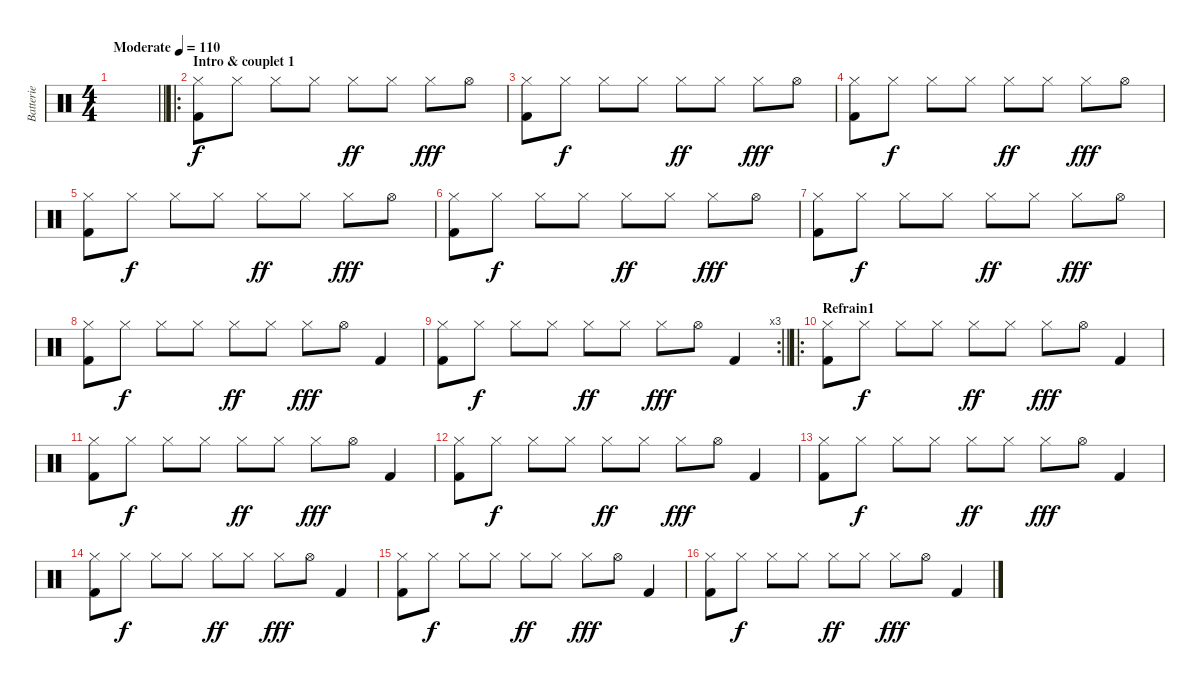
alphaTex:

\track ("Batterie" "Batterie") {instrument percussion}
\staff {score}
\articulation defaults
\ts (4 4)
\tempo (110 "Moderate")
\clef neutral
\barLineRight lightlight
\ks c
|
\ro
\section ("" "Intro & couplet 1")
("Hi-Hat (closed)" "Kick (hit) 2").8 "Hi-Hat (closed)".8{dy f} "Hi-Hat (closed)".8 "Hi-Hat (closed)".8 "Hi-Hat (closed)".8{dy ff} "Hi-Hat (closed)".8 "Hi-Hat (closed)".8{dy fff} "Hi-Hat (open)".8 |
("Hi-Hat (closed)" "Kick (hit) 2").8 "Hi-Hat (closed)".8{dy f} "Hi-Hat (closed)".8 "Hi-Hat (closed)".8 "Hi-Hat (closed)".8{dy ff} "Hi-Hat (closed)".8 "Hi-Hat (closed)".8{dy fff} "Hi-Hat (open)".8 |
("Hi-Hat (closed)" "Kick (hit) 2").8 "Hi-Hat (closed)".8{dy f} "Hi-Hat (closed)".8 "Hi-Hat (closed)".8 "Hi-Hat (closed)".8{dy ff} "Hi-Hat (closed)".8 "Hi-Hat (closed)".8{dy fff} "Hi-Hat (open)".8 |
("Hi-Hat (closed)" "Kick (hit) 2").8 "Hi-Hat (closed)".8{dy f} "Hi-Hat (closed)".8 "Hi-Hat (closed)".8 "Hi-Hat (closed)".8{dy ff} "Hi-Hat (closed)".8 "Hi-Hat (closed)".8{dy fff} "Hi-Hat (open)".8 |
("Hi-Hat (closed)" "Kick (hit) 2").8 "Hi-Hat (closed)".8{dy f} "Hi-Hat (closed)".8 "Hi-Hat (closed)".8 "Hi-Hat (closed)".8{dy ff} "Hi-Hat (closed)".8 "Hi-Hat (closed)".8{dy fff} "Hi-Hat (open)".8 |
("Hi-Hat (closed)" "Kick (hit) 2").8 "Hi-Hat (closed)".8{dy f} "Hi-Hat (closed)".8 "Hi-Hat (closed)".8 "Hi-Hat (closed)".8{dy ff} "Hi-Hat (closed)".8 "Hi-Hat (closed)".8{dy fff} "Hi-Hat (open)".8 |
("Hi-Hat (closed)" "Kick (hit) 2").8 "Hi-Hat (closed)".8{dy f} "Hi-Hat (closed)".8 "Hi-Hat (closed)".8 "Hi-Hat (closed)".8{dy ff} "Hi-Hat (closed)".8 "Hi-Hat (closed)".8{dy fff} "Hi-Hat (open)".8 "Kick (hit) 2".4 |
\rc 3
\barLineRight lightlight
("Hi-Hat (closed)" "Kick (hit) 2").8 "Hi-Hat (closed)".8{dy f} "Hi-Hat (closed)".8 "Hi-Hat (closed)".8 "Hi-Hat (closed)".8{dy ff} "Hi-Hat (closed)".8 "Hi-Hat (closed)".8{dy fff} "Hi-Hat (open)".8 "Kick (hit) 2".4 |
\ro
\section ("" "Refrain1")
("Hi-Hat (closed)" "Kick (hit) 2").8 "Hi-Hat (closed)".8{dy f} "Hi-Hat (closed)".8 "Hi-Hat (closed)".8 "Hi-Hat (closed)".8{dy ff} "Hi-Hat (closed)".8 "Hi-Hat (closed)".8{dy fff} "Hi-Hat (open)".8 "Kick (hit) 2".4 |
("Hi-Hat (closed)" "Kick (hit) 2").8 "Hi-Hat (closed)".8{dy f} "Hi-Hat (closed)".8 "Hi-Hat (closed)".8 "Hi-Hat (closed)".8{dy ff} "Hi-Hat (closed)".8 "Hi-Hat (closed)".8{dy fff} "Hi-Hat (open)".8 "Kick (hit) 2".4 |
("Hi-Hat (closed)" "Kick (hit) 2").8 "Hi-Hat (closed)".8{dy f} "Hi-Hat (closed)".8 "Hi-Hat (closed)".8 "Hi-Hat (closed)".8{dy ff} "Hi-Hat (closed)".8 "Hi-Hat (closed)".8{dy fff} "Hi-Hat (open)".8 "Kick (hit) 2".4 |
("Hi-Hat (closed)" "Kick (hit) 2").8 "Hi-Hat (closed)".8{dy f} "Hi-Hat (closed)".8 "Hi-Hat (closed)".8 "Hi-Hat (closed)".8{dy ff} "Hi-Hat (closed)".8 "Hi-Hat (closed)".8{dy fff} "Hi-Hat (open)".8 "Kick (hit) 2".4 |
("Hi-Hat (closed)" "Kick (hit) 2").8 "Hi-Hat (closed)".8{dy f} "Hi-Hat (closed)".8 "Hi-Hat (closed)".8 "Hi-Hat (closed)".8{dy ff} "Hi-Hat (closed)".8 "Hi-Hat (closed)".8{dy fff} "Hi-Hat (open)".8 "Kick (hit) 2".4 |
("Hi-Hat (closed)" "Kick (hit) 2").8 "Hi-Hat (closed)".8{dy f} "Hi-Hat (closed)".8 "Hi-Hat (closed)".8 "Hi-Hat (closed)".8{dy ff} "Hi-Hat (closed)".8 "Hi-Hat (closed)".8{dy fff} "Hi-Hat (open)".8 "Kick (hit) 2".4 |
("Hi-Hat (closed)" "Kick (hit) 2").8 "Hi-Hat (closed)".8{dy f} "Hi-Hat (closed)".8 "Hi-Hat (closed)".8 "Hi-Hat (closed)".8{dy ff} "Hi-Hat (closed)".8 "Hi-Hat (closed)".8{dy fff} "Hi-Hat (open)".8 "Kick (hit) 2".4
